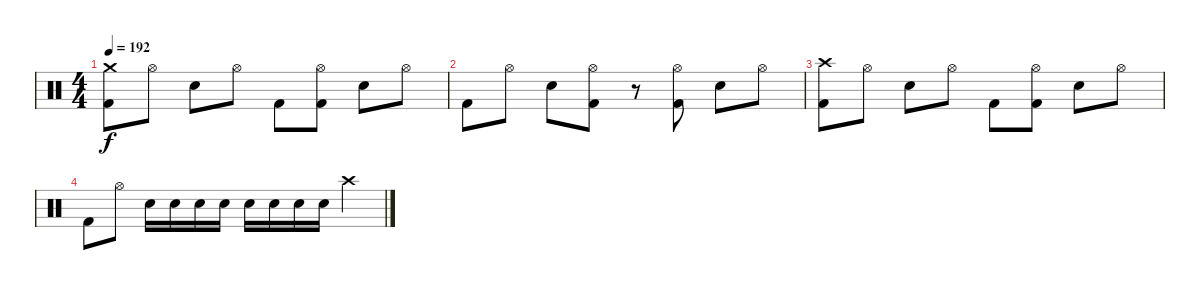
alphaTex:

\track "" {instrument percussion}
\staff {score}
\articulation defaults
\ts (4 4)
\tempo 192
\clef neutral
\ks c
("Crash medium (hit)" "Kick (hit) 2").8{dy f} "Hi-Hat (open)".8 "Snare (hit) 2".8 "Hi-Hat (open)".8 "Kick (hit) 2".8 ("Hi-Hat (open)" "Kick (hit) 2").8 "Snare (hit) 2".8 "Hi-Hat (open)".8 |
"Kick (hit) 2".8 "Hi-Hat (open)".8 "Snare (hit) 2".8 ("Hi-Hat (open)" "Kick (hit) 2").8 r.8 ("Hi-Hat (open)" "Kick (hit) 2").8 "Snare (hit) 2".8 "Hi-Hat (open)".8 |
("Crash high (hit)" "Kick (hit) 2").8 "Hi-Hat (open)".8 "Snare (hit) 2".8 "Hi-Hat (open)".8 "Kick (hit) 2".8 ("Hi-Hat (open)" "Kick (hit) 2").8 "Snare (hit) 2".8 "Hi-Hat (open)".8 |
"Kick (hit) 2".8 "Hi-Hat (open)".8 "Snare (hit) 2".16 "Snare (hit) 2".16 "Snare (hit) 2".16 "Snare (hit) 2".16 "Snare (hit) 2".16 "Snare (hit) 2".16 "Snare (hit) 2".16 "Snare (hit) 2".16 "Crash high (hit)".4
